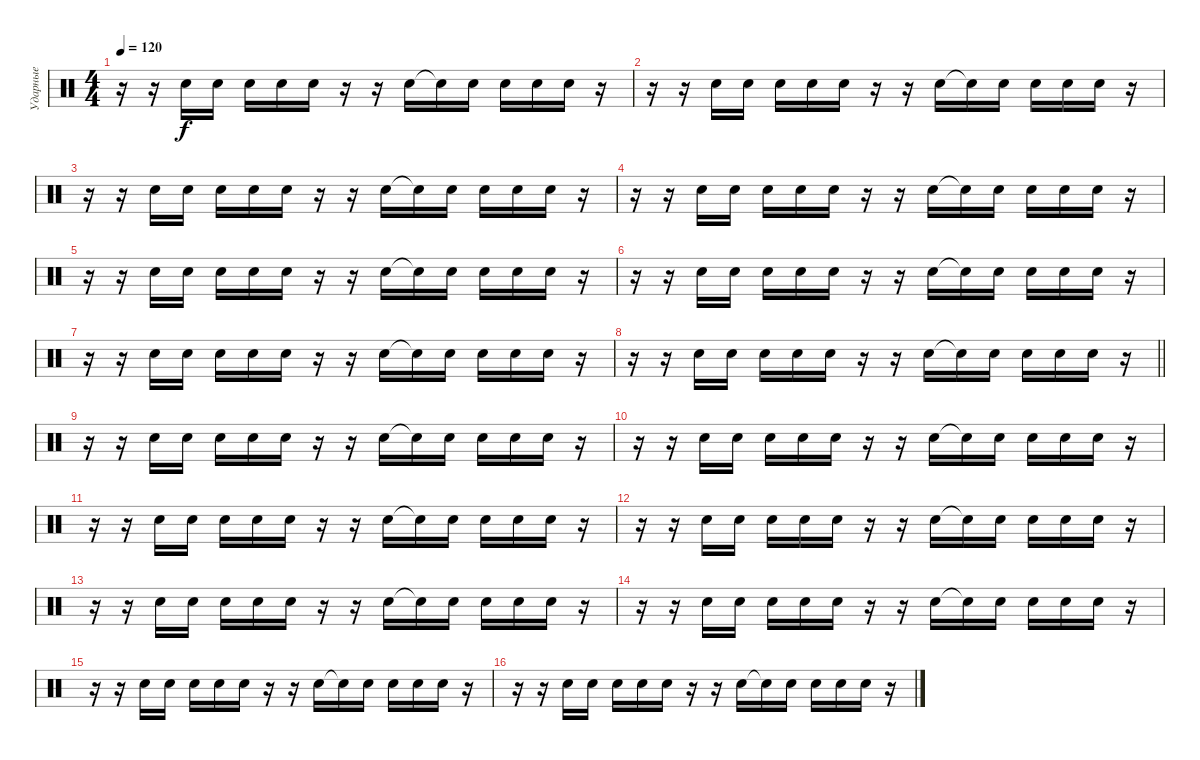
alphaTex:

\track ("Ударные" "Ударные") {instrument percussion}
\staff {score}
\articulation defaults
\ts (4 4)
\tempo 120
\clef neutral
\ks c
r.16{dy f} r.16 "Hand Clap (hit)".16 "Hand Clap (hit)".16 "Hand Clap (hit)".16 "Hand Clap (hit)".16 "Hand Clap (hit)".16 r.16 r.16 "Hand Clap (hit)".16 "Hand Clap (hit)"{t}.16 "Hand Clap (hit)".16 "Hand Clap (hit)".16 "Hand Clap (hit)".16 "Hand Clap (hit)".16 r.16 |
r.16 r.16 "Hand Clap (hit)".16 "Hand Clap (hit)".16 "Hand Clap (hit)".16 "Hand Clap (hit)".16 "Hand Clap (hit)".16 r.16 r.16 "Hand Clap (hit)".16 "Hand Clap (hit)"{t}.16 "Hand Clap (hit)".16 "Hand Clap (hit)".16 "Hand Clap (hit)".16 "Hand Clap (hit)".16 r.16 |
r.16 r.16 "Hand Clap (hit)".16 "Hand Clap (hit)".16 "Hand Clap (hit)".16 "Hand Clap (hit)".16 "Hand Clap (hit)".16 r.16 r.16 "Hand Clap (hit)".16 "Hand Clap (hit)"{t}.16 "Hand Clap (hit)".16 "Hand Clap (hit)".16 "Hand Clap (hit)".16 "Hand Clap (hit)".16 r.16 |
r.16 r.16 "Hand Clap (hit)".16 "Hand Clap (hit)".16 "Hand Clap (hit)".16 "Hand Clap (hit)".16 "Hand Clap (hit)".16 r.16 r.16 "Hand Clap (hit)".16 "Hand Clap (hit)"{t}.16 "Hand Clap (hit)".16 "Hand Clap (hit)".16 "Hand Clap (hit)".16 "Hand Clap (hit)".16 r.16 |
r.16 r.16 "Hand Clap (hit)".16 "Hand Clap (hit)".16 "Hand Clap (hit)".16 "Hand Clap (hit)".16 "Hand Clap (hit)".16 r.16 r.16 "Hand Clap (hit)".16 "Hand Clap (hit)"{t}.16 "Hand Clap (hit)".16 "Hand Clap (hit)".16 "Hand Clap (hit)".16 "Hand Clap (hit)".16 r.16 |
r.16 r.16 "Hand Clap (hit)".16 "Hand Clap (hit)".16 "Hand Clap (hit)".16 "Hand Clap (hit)".16 "Hand Clap (hit)".16 r.16 r.16 "Hand Clap (hit)".16 "Hand Clap (hit)"{t}.16 "Hand Clap (hit)".16 "Hand Clap (hit)".16 "Hand Clap (hit)".16 "Hand Clap (hit)".16 r.16 |
r.16 r.16 "Hand Clap (hit)".16 "Hand Clap (hit)".16 "Hand Clap (hit)".16 "Hand Clap (hit)".16 "Hand Clap (hit)".16 r.16 r.16 "Hand Clap (hit)".16 "Hand Clap (hit)"{t}.16 "Hand Clap (hit)".16 "Hand Clap (hit)".16 "Hand Clap (hit)".16 "Hand Clap (hit)".16 r.16 |
\barLineRight lightlight
r.16 r.16 "Hand Clap (hit)".16 "Hand Clap (hit)".16 "Hand Clap (hit)".16 "Hand Clap (hit)".16 "Hand Clap (hit)".16 r.16 r.16 "Hand Clap (hit)".16 "Hand Clap (hit)"{t}.16 "Hand Clap (hit)".16 "Hand Clap (hit)".16 "Hand Clap (hit)".16 "Hand Clap (hit)".16 r.16 |
\section ("" "")
r.16 r.16 "Hand Clap (hit)".16 "Hand Clap (hit)".16 "Hand Clap (hit)".16 "Hand Clap (hit)".16 "Hand Clap (hit)".16 r.16 r.16 "Hand Clap (hit)".16 "Hand Clap (hit)"{t}.16 "Hand Clap (hit)".16 "Hand Clap (hit)".16 "Hand Clap (hit)".16 "Hand Clap (hit)".16 r.16 |
r.16 r.16 "Hand Clap (hit)".16 "Hand Clap (hit)".16 "Hand Clap (hit)".16 "Hand Clap (hit)".16 "Hand Clap (hit)".16 r.16 r.16 "Hand Clap (hit)".16 "Hand Clap (hit)"{t}.16 "Hand Clap (hit)".16 "Hand Clap (hit)".16 "Hand Clap (hit)".16 "Hand Clap (hit)".16 r.16 |
r.16 r.16 "Hand Clap (hit)".16 "Hand Clap (hit)".16 "Hand Clap (hit)".16 "Hand Clap (hit)".16 "Hand Clap (hit)".16 r.16 r.16 "Hand Clap (hit)".16 "Hand Clap (hit)"{t}.16 "Hand Clap (hit)".16 "Hand Clap (hit)".16 "Hand Clap (hit)".16 "Hand Clap (hit)".16 r.16 |
r.16 r.16 "Hand Clap (hit)".16 "Hand Clap (hit)".16 "Hand Clap (hit)".16 "Hand Clap (hit)".16 "Hand Clap (hit)".16 r.16 r.16 "Hand Clap (hit)".16 "Hand Clap (hit)"{t}.16 "Hand Clap (hit)".16 "Hand Clap (hit)".16 "Hand Clap (hit)".16 "Hand Clap (hit)".16 r.16 |
r.16 r.16 "Hand Clap (hit)".16 "Hand Clap (hit)".16 "Hand Clap (hit)".16 "Hand Clap (hit)".16 "Hand Clap (hit)".16 r.16 r.16 "Hand Clap (hit)".16 "Hand Clap (hit)"{t}.16 "Hand Clap (hit)".16 "Hand Clap (hit)".16 "Hand Clap (hit)".16 "Hand Clap (hit)".16 r.16 |
r.16 r.16 "Hand Clap (hit)".16 "Hand Clap (hit)".16 "Hand Clap (hit)".16 "Hand Clap (hit)".16 "Hand Clap (hit)".16 r.16 r.16 "Hand Clap (hit)".16 "Hand Clap (hit)"{t}.16 "Hand Clap (hit)".16 "Hand Clap (hit)".16 "Hand Clap (hit)".16 "Hand Clap (hit)".16 r.16 |
r.16 r.16 "Hand Clap (hit)".16 "Hand Clap (hit)".16 "Hand Clap (hit)".16 "Hand Clap (hit)".16 "Hand Clap (hit)".16 r.16 r.16 "Hand Clap (hit)".16 "Hand Clap (hit)"{t}.16 "Hand Clap (hit)".16 "Hand Clap (hit)".16 "Hand Clap (hit)".16 "Hand Clap (hit)".16 r.16 |
r.16 r.16 "Hand Clap (hit)".16 "Hand Clap (hit)".16 "Hand Clap (hit)".16 "Hand Clap (hit)".16 "Hand Clap (hit)".16 r.16 r.16 "Hand Clap (hit)".16 "Hand Clap (hit)"{t}.16 "Hand Clap (hit)".16 "Hand Clap (hit)".16 "Hand Clap (hit)".16 "Hand Clap (hit)".16 r.16
